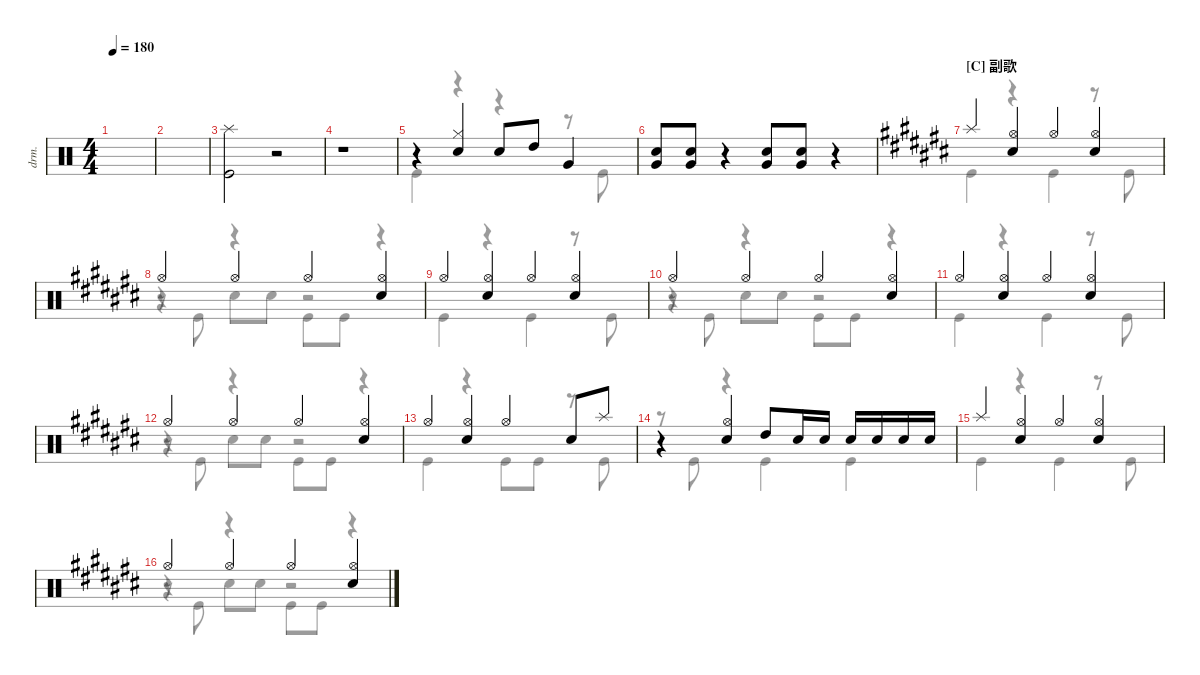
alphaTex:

\defaultSystemsLayout 4
\hideDynamics
\bracketExtendMode nobrackets
\otherSystemsTrackNameOrientation horizontal
\track ("Drumkit" "drm.") {instrument percussion}
\staff {score}
\articulation defaults
\voice
\ts (4 4)
\tempo 180
\clef neutral
\ks c
|
|
("Splash (hit)" "Kick (hit)").2 r.2 |
r.1 |
r.4 ("Hi-Hat (closed)" "Snare (hit) 2").4 "Snare (hit) 2".8 "High Tom (hit)".8 "Very Low Tom (hit)".4 |
("Very Low Tom (hit)" "Snare (hit) 2").8 ("Snare (hit) 2" "Very Low Tom (hit)").8 r.4 ("Very Low Tom (hit)" "Snare (hit) 2").8 ("Snare (hit) 2" "Very Low Tom (hit)").8 r.4 |
\section ("C" "副歌")
\ks c# "Splash (hit)".4
("Hi-Hat (open)" "Snare (hit) 2").4 "Hi-Hat (open)".4 ("Hi-Hat (open)" "Snare (hit) 2").4 |
"Hi-Hat (open)".4 "Hi-Hat (open)".4 "Hi-Hat (open)".4 ("Hi-Hat (open)" "Snare (hit) 2").4 |
"Hi-Hat (open)".4 ("Hi-Hat (open)" "Snare (hit) 2").4 "Hi-Hat (open)".4 ("Hi-Hat (open)" "Snare (hit) 2").4 |
"Hi-Hat (open)".4 "Hi-Hat (open)".4 "Hi-Hat (open)".4 ("Hi-Hat (open)" "Snare (hit) 2").4 |
"Hi-Hat (open)".4 ("Hi-Hat (open)" "Snare (hit) 2").4 "Hi-Hat (open)".4 ("Hi-Hat (open)" "Snare (hit) 2").4 |
"Hi-Hat (open)".4 "Hi-Hat (open)".4 "Hi-Hat (open)".4 ("Hi-Hat (open)" "Snare (hit) 2").4 |
"Hi-Hat (open)".4 ("Hi-Hat (open)" "Snare (hit) 2").4 "Hi-Hat (open)".4 "Snare (hit) 2".8 "Splash (hit)".8 |
r.4 ("Hi-Hat (open)" "Snare (hit) 2").4 "High Tom (hit)".8 "Snare (hit) 2".16 "Snare (hit) 2".16 "Snare (hit) 2".16 "Snare (hit) 2".16 "Snare (hit) 2".16 "Snare (hit) 2".16 |
"Splash (hit)".4 ("Hi-Hat (open)" "Snare (hit) 2").4 "Hi-Hat (open)".4 ("Hi-Hat (open)" "Snare (hit) 2").4 |
"Hi-Hat (open)".4 "Hi-Hat (open)".4 "Hi-Hat (open)".4 ("Hi-Hat (open)" "Snare (hit) 2").4
\voice
\clef neutral
\ottava regular
\simile none
\ks c
|
|
|
|
"Kick (hit)".4 r.4 r.4 r.8 "Kick (hit)".8 |
|
\ks c# "Kick (hit)".4
r.4 "Kick (hit)".4 r.8 "Kick (hit)".8 |
r.8 "Kick (hit)".8 r.4 "Kick (hit)".8 "Kick (hit)".8 r.4 |
"Kick (hit)".4 r.4 "Kick (hit)".4 r.8 "Kick (hit)".8 |
r.8 "Kick (hit)".8 r.4 "Kick (hit)".8 "Kick (hit)".8 r.4 |
"Kick (hit)".4 r.4 "Kick (hit)".4 r.8 "Kick (hit)".8 |
r.8 "Kick (hit)".8 r.4 "Kick (hit)".8 "Kick (hit)".8 r.4 |
"Kick (hit)".4 r.4 "Kick (hit)".8 "Kick (hit)".8 r.8 "Kick (hit)".8 |
r.8 "Kick (hit)".8 r.4 "Kick (hit)".4 "Kick (hit)".4 |
"Kick (hit)".4 r.4 "Kick (hit)".4 r.8 "Kick (hit)".8 |
r.8 "Kick (hit)".8 r.4 "Kick (hit)".8 "Kick (hit)".8 r.4
\voice
\clef neutral
\ottava regular
\simile none
\ks c
|
|
|
|
|
|
\ks c#
|
r.4 "Snare (hit) 2".8 "Snare (hit) 2".8 r.2 |
|
r.4 "Snare (hit) 2".8 "Snare (hit) 2".8 r.2 |
|
r.4 "Snare (hit) 2".8 "Snare (hit) 2".8 r.2 |
|
|
|
r.4 "Snare (hit) 2".8 "Snare (hit) 2".8 r.2
